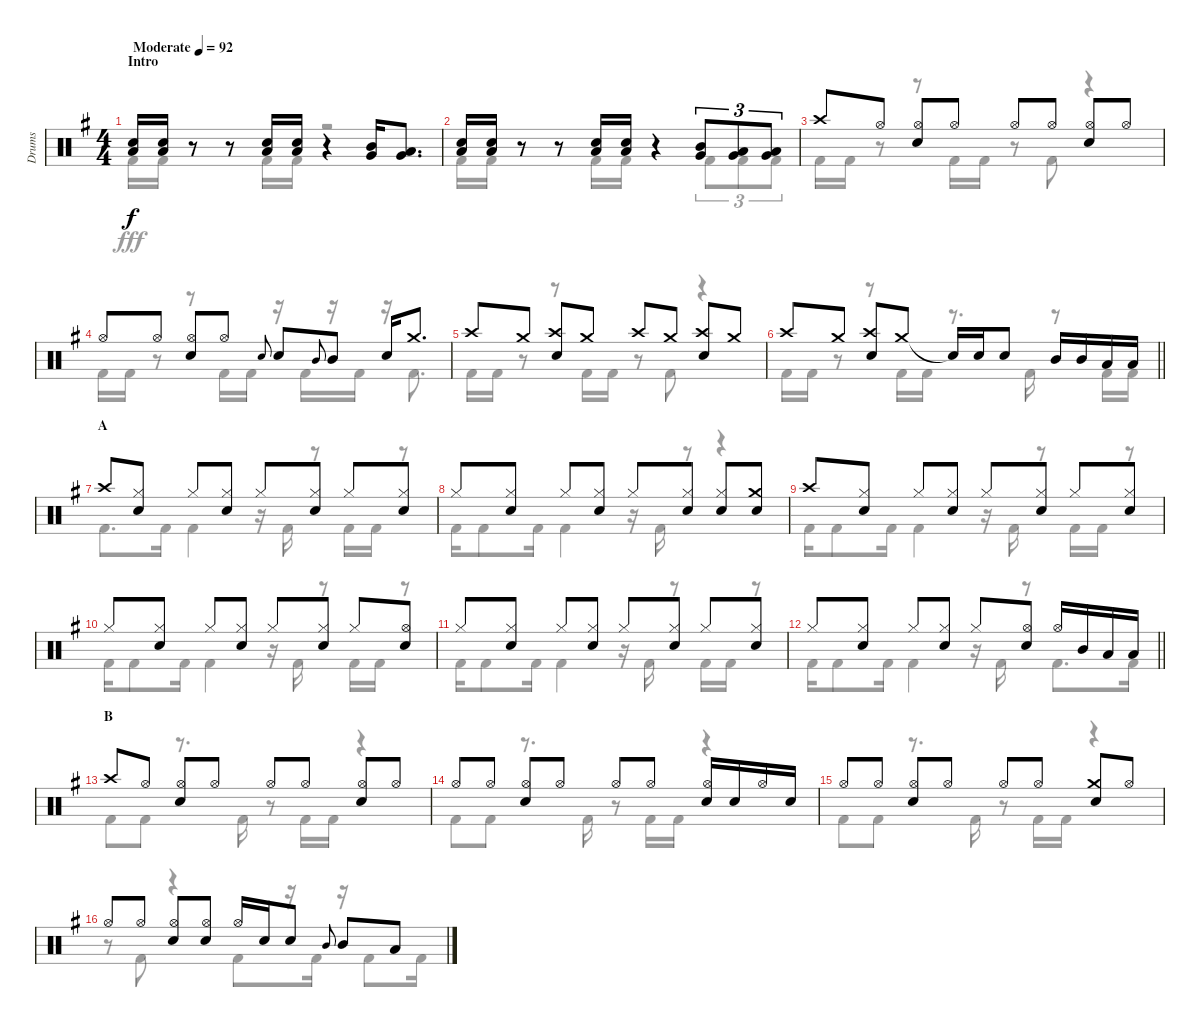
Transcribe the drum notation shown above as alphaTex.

\track ("Drums" "Drums") {instrument percussion}
\staff {score}
\articulation defaults
\voice
\ts (4 4)
\section ("" "Intro")
\tempo (92 "Moderate")
\clef neutral
\ks eminor
("Snare (hit) 2" "Low Tom (hit)").16{dy f} ("Snare (hit) 2" "Low Tom (hit)").16 r.8 r.8 ("Snare (hit) 2" "Low Tom (hit)").16 ("Snare (hit) 2" "Low Tom (hit)").16 r.4 ("Mid Tom (hit)" "Very Low Tom (hit)").16 ("Low Tom (hit)" "Very Low Tom (hit)").8{d} |
("Snare (hit) 2" "Low Tom (hit)").16 ("Snare (hit) 2" "Low Tom (hit)").16 r.8 r.8 ("Snare (hit) 2" "Low Tom (hit)").16 ("Snare (hit) 2" "Low Tom (hit)").16 r.4 ("Mid Tom (hit)" "Very Low Tom (hit)").8{tu (3 2)} ("Low Tom (hit)" "Very Low Tom (hit)").8{tu (3 2)} ("Low Tom (hit)" "Very Low Tom (hit)").8{tu (3 2)} |
"Crash high (hit)".8 "Hi-Hat (open)".8 ("Hi-Hat (open)" "Snare (hit) 2").8 "Hi-Hat (open)".8 "Hi-Hat (open)".8 "Hi-Hat (open)".8 ("Hi-Hat (open)" "Snare (hit) 2").8 "Hi-Hat (open)".8 |
"Hi-Hat (open)".8 "Hi-Hat (open)".8 ("Hi-Hat (open)" "Snare (hit) 2").8 "Hi-Hat (open)".8 "Snare (hit) 2".8{gr onbeat} "Snare (hit) 2".8 "Mid Tom (hit)".8{gr onbeat} "Mid Tom (hit)".8 "Snare (hit) 2".16 "Crash medium (hit)".8{d} |
"Crash high (hit)".8 "Crash medium (hit)".8 ("Crash high (hit)" "Snare (hit) 2").8 "Crash medium (hit)".8 "Crash high (hit)".8 "Crash medium (hit)".8 ("Crash high (hit)" "Snare (hit) 2").8 "Crash medium (hit)".8 |
\barLineRight lightlight "Crash high (hit)".8 "Crash medium (hit)".8
("Crash high (hit)" "Snare (hit) 2").8 "Crash medium (hit)".8 "Snare (hit)"{t}.16 "Snare (hit) 2".16 "Snare (hit) 2".8 "Mid Tom (hit)".16 "Mid Tom (hit)".16 "Low Tom (hit)".16 "Low Tom (hit)".16 |
\section ("" "A")
"Crash high (hit)".8 ("Hi-Hat (closed)" "Snare (hit) 2").8 "Hi-Hat (closed)".8 ("Hi-Hat (closed)" "Snare (hit) 2").8 "Hi-Hat (closed)".8 ("Hi-Hat (closed)" "Snare (hit) 2").8 "Hi-Hat (closed)".8 ("Hi-Hat (closed)" "Snare (hit) 2").8 |
"Hi-Hat (closed)".8 ("Hi-Hat (closed)" "Snare (hit) 2").8 "Hi-Hat (closed)".8 ("Hi-Hat (closed)" "Snare (hit) 2").8 "Hi-Hat (closed)".8 ("Hi-Hat (closed)" "Snare (hit) 2").8 ("Hi-Hat (closed)" "Snare (hit) 2").8 ("Crash medium (hit)" "Snare (hit) 2").8 |
"Crash high (hit)".8 ("Hi-Hat (closed)" "Snare (hit) 2").8 "Hi-Hat (closed)".8 ("Hi-Hat (closed)" "Snare (hit) 2").8 "Hi-Hat (closed)".8 ("Hi-Hat (closed)" "Snare (hit) 2").8 "Hi-Hat (closed)".8 ("Hi-Hat (closed)" "Snare (hit) 2").8 |
"Hi-Hat (closed)".8 ("Hi-Hat (closed)" "Snare (hit) 2").8 "Hi-Hat (closed)".8 ("Hi-Hat (closed)" "Snare (hit) 2").8 "Hi-Hat (closed)".8 ("Hi-Hat (closed)" "Snare (hit) 2").8 "Hi-Hat (closed)".8 ("Hi-Hat (open)" "Snare (hit) 2").8 |
"Hi-Hat (closed)".8 ("Hi-Hat (closed)" "Snare (hit) 2").8 "Hi-Hat (closed)".8 ("Hi-Hat (closed)" "Snare (hit) 2").8 "Hi-Hat (closed)".8 ("Hi-Hat (closed)" "Snare (hit) 2").8 "Hi-Hat (closed)".8 ("Hi-Hat (closed)" "Snare (hit) 2").8 |
\barLineRight lightlight "Hi-Hat (closed)".8
("Hi-Hat (closed)" "Snare (hit) 2").8 "Hi-Hat (closed)".8 ("Hi-Hat (closed)" "Snare (hit) 2").8 "Hi-Hat (closed)".8 ("Hi-Hat (open)" "Snare (hit) 2").8 "Hi-Hat (open)".16 "Mid Tom (hit)".16 "Low Tom (hit)".16 "Low Tom (hit)".16 |
\section ("" "B")
"Crash high (hit)".8 "Hi-Hat (open)".8 ("Hi-Hat (open)" "Snare (hit) 2").8 "Hi-Hat (open)".8 "Hi-Hat (open)".8 "Hi-Hat (open)".8 ("Hi-Hat (open)" "Snare (hit) 2").8 "Hi-Hat (open)".8 |
"Hi-Hat (open)".8 "Hi-Hat (open)".8 ("Hi-Hat (open)" "Snare (hit) 2").8 "Hi-Hat (open)".8 "Hi-Hat (open)".8 "Hi-Hat (open)".8 ("Hi-Hat (open)" "Snare (hit) 2").16 "Snare (hit) 2".16 "Hi-Hat (open)".16 "Snare (hit) 2".16 |
"Hi-Hat (open)".8 "Hi-Hat (open)".8 ("Hi-Hat (open)" "Snare (hit) 2").8 "Hi-Hat (open)".8 "Hi-Hat (open)".8 "Hi-Hat (open)".8 ("Crash medium (hit)" "Snare (hit) 2").8 "Hi-Hat (open)".8 |
"Hi-Hat (open)".8 "Hi-Hat (open)".8 ("Hi-Hat (open)" "Snare (hit) 2").8 ("Hi-Hat (open)" "Snare (hit) 2").8 "Hi-Hat (open)".16 "Snare (hit) 2".16 "Snare (hit) 2".8 "Mid Tom (hit)".8{gr onbeat} "Mid Tom (hit)".8 "Low Tom (hit)".8
\voice
\clef neutral
\ottava regular
\simile none
\ks eminor "Kick (hit) 2".16{dy fff} "Kick (hit) 2".16
r.8 r.8 "Kick (hit) 2".16 "Kick (hit) 2".16 r.2 |
"Kick (hit) 2".16 "Kick (hit) 2".16 r.8 r.8 "Kick (hit) 2".16 "Kick (hit) 2".16 r.4 "Kick (hit) 2".8{tu (3 2)} "Kick (hit) 2".8{tu (3 2)} "Kick (hit) 2".8{tu (3 2)} |
"Kick (hit) 2".16 "Kick (hit) 2".16 r.8 r.8 "Kick (hit) 2".16 "Kick (hit) 2".16 r.8 "Kick (hit) 2".8 r.4 |
"Kick (hit) 2".16 "Kick (hit) 2".16 r.8 r.8 "Kick (hit) 2".16 "Kick (hit) 2".16 r.16 "Kick (hit) 2".16 r.16 "Kick (hit) 2".16 r.16 "Kick (hit) 2".8{d} |
"Kick (hit) 2".16 "Kick (hit) 2".16 r.8 r.8 "Kick (hit) 2".16 "Kick (hit) 2".16 r.8 "Kick (hit) 2".8 r.4 |
\barLineRight lightlight "Kick (hit) 2".16 "Kick (hit) 2".16
r.8 r.8 "Kick (hit) 2".16 "Kick (hit) 2".16 r.8{d} "Kick (hit) 2".16 r.8 "Kick (hit) 2".16 "Kick (hit) 2".16 |
"Kick (hit) 2".8{d} "Kick (hit) 2".16 "Kick (hit) 2".4 r.16 "Kick (hit) 2".16 r.8 "Kick (hit) 2".16 "Kick (hit) 2".16 r.8 |
"Kick (hit) 2".16 "Kick (hit) 2".8 "Kick (hit) 2".16 "Kick (hit) 2".4 r.16 "Kick (hit) 2".16 r.8 r.4 |
"Kick (hit) 2".16 "Kick (hit) 2".8 "Kick (hit) 2".16 "Kick (hit) 2".4 r.16 "Kick (hit) 2".16 r.8 "Kick (hit) 2".16 "Kick (hit) 2".16 r.8 |
"Kick (hit) 2".16 "Kick (hit) 2".8 "Kick (hit) 2".16 "Kick (hit) 2".4 r.16 "Kick (hit) 2".16 r.8 "Kick (hit) 2".16 "Kick (hit) 2".16 r.8 |
"Kick (hit) 2".16 "Kick (hit) 2".8 "Kick (hit) 2".16 "Kick (hit) 2".4 r.16 "Kick (hit) 2".16 r.8 "Kick (hit) 2".16 "Kick (hit) 2".16 r.8 |
\barLineRight lightlight "Kick (hit) 2".16 "Kick (hit) 2".8 "Kick (hit) 2".16 "Kick (hit) 2".4
r.16 "Kick (hit) 2".16 r.8 "Kick (hit) 2".8{d} "Kick (hit) 2".16 |
"Kick (hit) 2".8 "Kick (hit) 2".8 r.8{d} "Kick (hit) 2".16 r.8 "Kick (hit) 2".16 "Kick (hit) 2".16 r.4 |
"Kick (hit) 2".8 "Kick (hit) 2".8 r.8{d} "Kick (hit) 2".16 r.8 "Kick (hit) 2".16 "Kick (hit) 2".16 r.4 |
"Kick (hit) 2".8 "Kick (hit) 2".8 r.8{d} "Kick (hit) 2".16 r.8 "Kick (hit) 2".16 "Kick (hit) 2".16 r.4 |
r.8 "Kick (hit) 2".8 r.4 "Kick (hit) 2".8 r.16 "Kick (hit) 2".16 r.16 "Kick (hit) 2".8 "Kick (hit) 2".16
